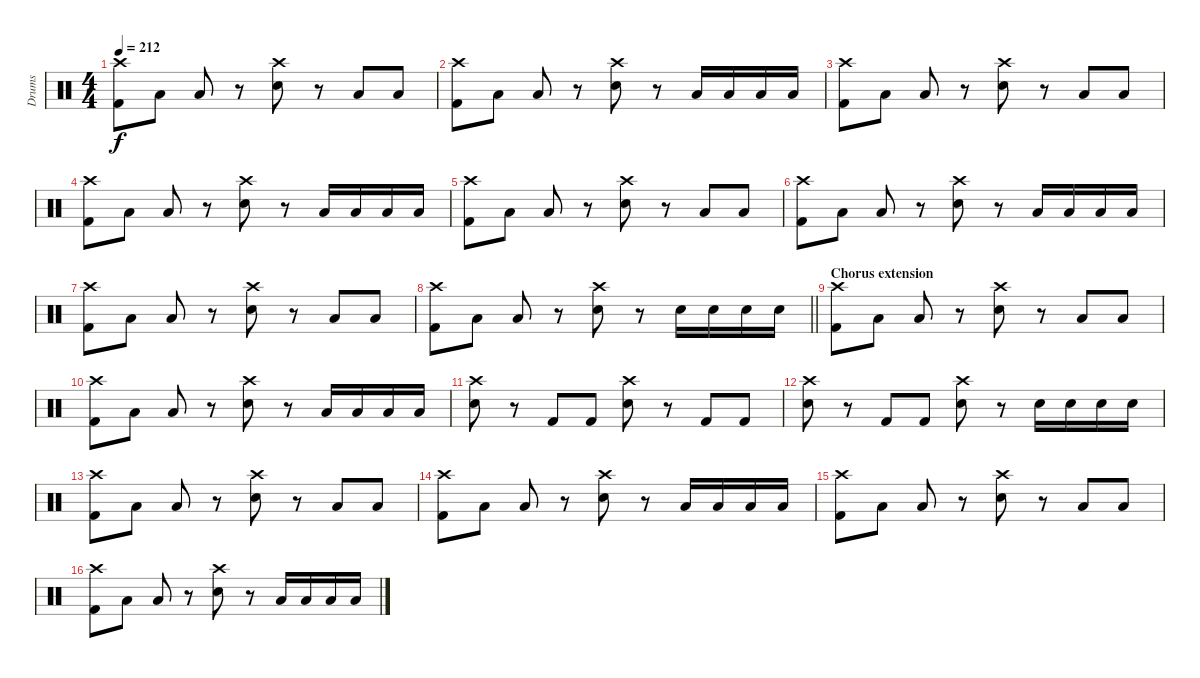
\track ("Drums" "Drums") {instrument percussion}
\staff {score}
\articulation defaults
\ts (4 4)
\tempo 212
\clef neutral
\ks c
("Crash high (hit)" "Kick (hit) 2").8{dy f} "Low Floor Tom (hit)".8 "Low Floor Tom (hit)".8 r.8 ("Crash high (hit)" "Snare (hit) 2").8 r.8 "Low Floor Tom (hit)".8 "Low Floor Tom (hit)".8 |
("Crash high (hit)" "Kick (hit) 2").8 "Low Floor Tom (hit)".8 "Low Floor Tom (hit)".8 r.8 ("Crash high (hit)" "Snare (hit) 2").8 r.8 "Low Floor Tom (hit)".16 "Low Floor Tom (hit)".16 "Low Floor Tom (hit)".16 "Low Floor Tom (hit)".16 |
("Crash high (hit)" "Kick (hit) 2").8 "Low Floor Tom (hit)".8 "Low Floor Tom (hit)".8 r.8 ("Crash high (hit)" "Snare (hit) 2").8 r.8 "Low Floor Tom (hit)".8 "Low Floor Tom (hit)".8 |
("Crash high (hit)" "Kick (hit) 2").8 "Low Floor Tom (hit)".8 "Low Floor Tom (hit)".8 r.8 ("Crash high (hit)" "Snare (hit) 2").8 r.8 "Low Floor Tom (hit)".16 "Low Floor Tom (hit)".16 "Low Floor Tom (hit)".16 "Low Floor Tom (hit)".16 |
("Crash high (hit)" "Kick (hit) 2").8 "Low Floor Tom (hit)".8 "Low Floor Tom (hit)".8 r.8 ("Crash high (hit)" "Snare (hit) 2").8 r.8 "Low Floor Tom (hit)".8 "Low Floor Tom (hit)".8 |
("Crash high (hit)" "Kick (hit) 2").8 "Low Floor Tom (hit)".8 "Low Floor Tom (hit)".8 r.8 ("Crash high (hit)" "Snare (hit) 2").8 r.8 "Low Floor Tom (hit)".16 "Low Floor Tom (hit)".16 "Low Floor Tom (hit)".16 "Low Floor Tom (hit)".16 |
("Crash high (hit)" "Kick (hit) 2").8 "Low Floor Tom (hit)".8 "Low Floor Tom (hit)".8 r.8 ("Crash high (hit)" "Snare (hit) 2").8 r.8 "Low Floor Tom (hit)".8 "Low Floor Tom (hit)".8 |
\barLineRight lightlight
("Crash high (hit)" "Kick (hit) 2").8 "Low Floor Tom (hit)".8 "Low Floor Tom (hit)".8 r.8 ("Crash high (hit)" "Snare (hit) 2").8 r.8 "Snare (hit) 2".16 "Snare (hit) 2".16 "Snare (hit) 2".16 "Snare (hit) 2".16 |
\section ("" "Chorus extension")
("Crash high (hit)" "Kick (hit) 2").8 "Low Floor Tom (hit)".8 "Low Floor Tom (hit)".8 r.8 ("Crash high (hit)" "Snare (hit) 2").8 r.8 "Low Floor Tom (hit)".8 "Low Floor Tom (hit)".8 |
("Crash high (hit)" "Kick (hit) 2").8 "Low Floor Tom (hit)".8 "Low Floor Tom (hit)".8 r.8 ("Crash high (hit)" "Snare (hit) 2").8 r.8 "Low Floor Tom (hit)".16 "Low Floor Tom (hit)".16 "Low Floor Tom (hit)".16 "Low Floor Tom (hit)".16 |
("Crash high (hit)" "Snare (hit) 2").8 r.8 "Kick (hit) 2".8 "Kick (hit) 2".8 ("Crash high (hit)" "Snare (hit) 2").8 r.8 "Kick (hit) 2".8 "Kick (hit) 2".8 |
("Crash high (hit)" "Snare (hit) 2").8 r.8 "Kick (hit) 2".8 "Kick (hit) 2".8 ("Crash high (hit)" "Snare (hit) 2").8 r.8 "Snare (hit) 2".16 "Snare (hit) 2".16 "Snare (hit) 2".16 "Snare (hit) 2".16 |
("Crash high (hit)" "Kick (hit) 2").8 "Low Floor Tom (hit)".8 "Low Floor Tom (hit)".8 r.8 ("Crash high (hit)" "Snare (hit) 2").8 r.8 "Low Floor Tom (hit)".8 "Low Floor Tom (hit)".8 |
("Crash high (hit)" "Kick (hit) 2").8 "Low Floor Tom (hit)".8 "Low Floor Tom (hit)".8 r.8 ("Crash high (hit)" "Snare (hit) 2").8 r.8 "Low Floor Tom (hit)".16 "Low Floor Tom (hit)".16 "Low Floor Tom (hit)".16 "Low Floor Tom (hit)".16 |
("Crash high (hit)" "Kick (hit) 2").8 "Low Floor Tom (hit)".8 "Low Floor Tom (hit)".8 r.8 ("Crash high (hit)" "Snare (hit) 2").8 r.8 "Low Floor Tom (hit)".8 "Low Floor Tom (hit)".8 |
("Crash high (hit)" "Kick (hit) 2").8 "Low Floor Tom (hit)".8 "Low Floor Tom (hit)".8 r.8 ("Crash high (hit)" "Snare (hit) 2").8 r.8 "Low Floor Tom (hit)".16 "Low Floor Tom (hit)".16 "Low Floor Tom (hit)".16 "Low Floor Tom (hit)".16
